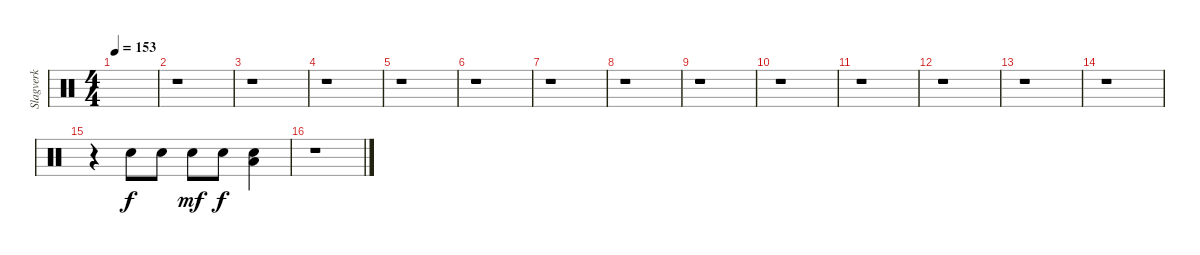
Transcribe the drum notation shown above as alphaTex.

\track ("Slagverk" "Slagverk") {instrument percussion}
\staff {score}
\articulation defaults
\ts (4 4)
\tempo 153
\clef neutral
\ks c
|
r.1 |
r.1 |
r.1 |
r.1 |
r.1 |
r.1 |
r.1 |
r.1 |
r.1 |
r.1 |
r.1 |
r.1 |
r.1 |
r.4 "Snare (hit) 2".8 "Snare (hit) 2".8 "Snare (hit) 2".8{dy mf} "Snare (hit) 2".8{dy f} ("Snare (hit) 2" "Low Floor Tom (hit)").4 |
r.1
